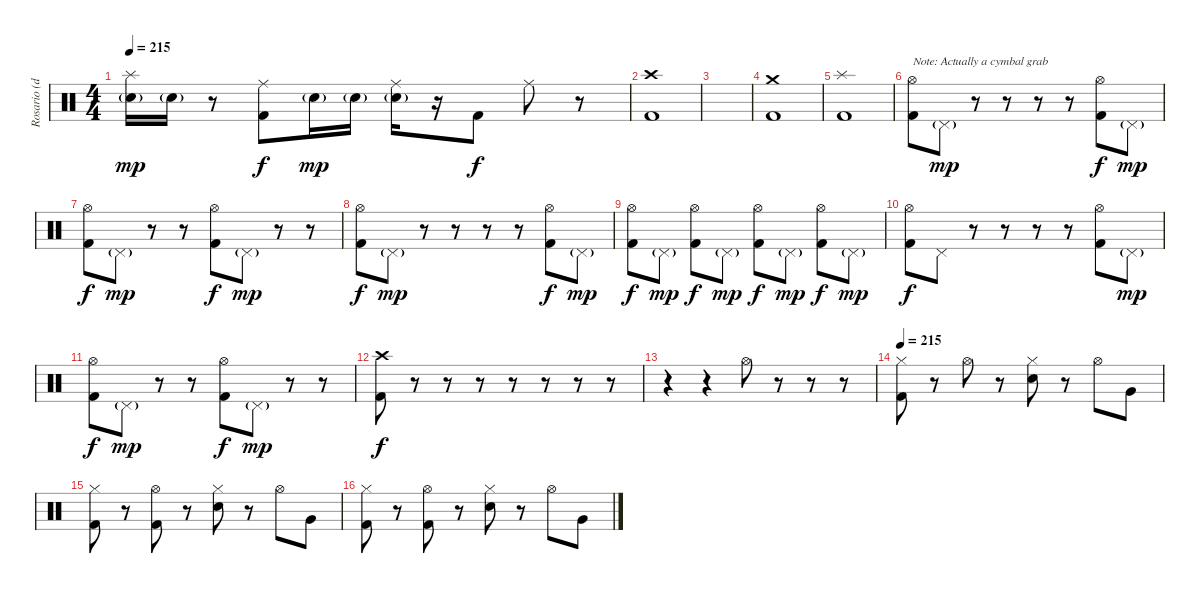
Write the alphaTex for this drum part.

\track ("Rosario (drum)" "Rosario (d") {instrument percussion}
\staff {score}
\articulation defaults
\ts (4 4)
\tempo 215
\clef neutral
\ks c
("Splash (hit)" "Electric Snare (hit)"{g}).16{dy mp} "Electric Snare (hit)"{g}.16 r.8 ("Ride (middle)" "Kick (hit) 2").8{dy f} "Electric Snare (hit)"{g}.16{dy mp} "Electric Snare (hit)"{g}.16 ("Ride (middle)" "Electric Snare (hit)"{g}).16 r.16 "Kick (hit) 2".8{dy f} "Ride (middle)".8 r.8 |
("Crash high (hit)" "Kick (hit) 2").1 |
|
("Crash medium (hit)" "Kick (hit) 2").1 |
("Splash (hit)" "Kick (hit) 2").1 |
("Hi-Hat (open)" "Kick (hit) 2").8{txt "Note: Actually a cymbal grab"} "Pedal Hi-Hat (hit)"{g}.8{dy mp} r.8 r.8 r.8 r.8 ("Hi-Hat (open)" "Kick (hit) 2").8{dy f} "Pedal Hi-Hat (hit)"{g}.8{dy mp} |
("Hi-Hat (open)" "Kick (hit) 2").8{dy f} "Pedal Hi-Hat (hit)"{g}.8{dy mp} r.8 r.8 ("Hi-Hat (open)" "Kick (hit) 2").8{dy f} "Pedal Hi-Hat (hit)"{g}.8{dy mp} r.8 r.8 |
("Hi-Hat (open)" "Kick (hit) 2").8{dy f} "Pedal Hi-Hat (hit)"{g}.8{dy mp} r.8 r.8 r.8 r.8 ("Hi-Hat (open)" "Kick (hit) 2").8{dy f} "Pedal Hi-Hat (hit)"{g}.8{dy mp} |
("Hi-Hat (open)" "Kick (hit) 2").8{dy f} "Pedal Hi-Hat (hit)"{g}.8{dy mp} ("Hi-Hat (open)" "Kick (hit) 2").8{dy f} "Pedal Hi-Hat (hit)"{g}.8{dy mp} ("Hi-Hat (open)" "Kick (hit) 2").8{dy f} "Pedal Hi-Hat (hit)"{g}.8{dy mp} ("Hi-Hat (open)" "Kick (hit) 2").8{dy f} "Pedal Hi-Hat (hit)"{g}.8{dy mp} |
("Hi-Hat (open)" "Kick (hit) 2").8{dy f} "Pedal Hi-Hat (hit)".8 r.8 r.8 r.8 r.8 ("Hi-Hat (open)" "Kick (hit) 2").8 "Pedal Hi-Hat (hit)"{g}.8{dy mp} |
("Hi-Hat (open)" "Kick (hit) 2").8{dy f} "Pedal Hi-Hat (hit)"{g}.8{dy mp} r.8 r.8 ("Hi-Hat (open)" "Kick (hit) 2").8{dy f} "Pedal Hi-Hat (hit)"{g}.8{dy mp} r.8 r.8 |
("Crash high (hit)" "Kick (hit) 2").8{dy f} r.8 r.8 r.8 r.8 r.8 r.8 r.8 |
r.4 r.4 "Hi-Hat (open)".8 r.8 r.8 r.8 |
\tempo 215
("Hi-Hat (closed)" "Kick (hit) 2").8 r.8 "Hi-Hat (open)".8 r.8 ("Hi-Hat (closed)" "Electric Snare (hit)").8 r.8 "Hi-Hat (open)".8 "Very Low Tom (hit)".8 |
("Hi-Hat (closed)" "Kick (hit) 2").8 r.8 ("Hi-Hat (open)" "Kick (hit) 2").8 r.8 ("Hi-Hat (closed)" "Electric Snare (hit)").8 r.8 "Hi-Hat (open)".8 "Very Low Tom (hit)".8 |
("Hi-Hat (closed)" "Kick (hit) 2").8 r.8 ("Hi-Hat (open)" "Kick (hit) 2").8 r.8 ("Hi-Hat (closed)" "Electric Snare (hit)").8 r.8 "Hi-Hat (open)".8 "Very Low Tom (hit)".8
